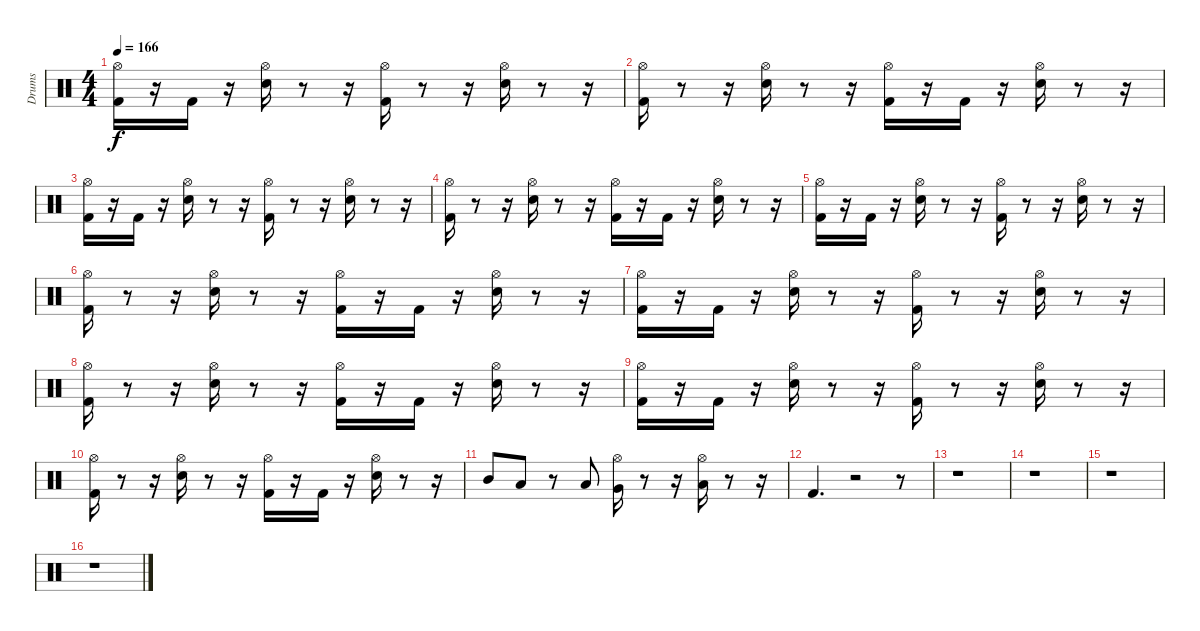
\track ("Drums" "Drums") {instrument percussion}
\staff {score}
\articulation defaults
\ts (4 4)
\tempo 166
\clef neutral
\ks c
("Hi-Hat (open)" "Kick (hit) 2").16{dy f} r.16 "Kick (hit) 2".16 r.16 ("Snare (hit) 2" "Hi-Hat (open)").16 r.8 r.16 ("Hi-Hat (open)" "Kick (hit) 2").16 r.8 r.16 ("Hi-Hat (open)" "Snare (hit) 2").16 r.8 r.16 |
("Hi-Hat (open)" "Kick (hit) 2").16 r.8 r.16 ("Snare (hit) 2" "Hi-Hat (open)").16 r.8 r.16 ("Kick (hit) 2" "Hi-Hat (open)").16 r.16 "Kick (hit) 2".16 r.16 ("Hi-Hat (open)" "Snare (hit) 2").16 r.8 r.16 |
("Hi-Hat (open)" "Kick (hit) 2").16 r.16 "Kick (hit) 2".16 r.16 ("Snare (hit) 2" "Hi-Hat (open)").16 r.8 r.16 ("Hi-Hat (open)" "Kick (hit) 2").16 r.8 r.16 ("Hi-Hat (open)" "Snare (hit) 2").16 r.8 r.16 |
("Hi-Hat (open)" "Kick (hit) 2").16 r.8 r.16 ("Snare (hit) 2" "Hi-Hat (open)").16 r.8 r.16 ("Kick (hit) 2" "Hi-Hat (open)").16 r.16 "Kick (hit) 2".16 r.16 ("Hi-Hat (open)" "Snare (hit) 2").16 r.8 r.16 |
("Hi-Hat (open)" "Kick (hit) 2").16 r.16 "Kick (hit) 2".16 r.16 ("Snare (hit) 2" "Hi-Hat (open)").16 r.8 r.16 ("Hi-Hat (open)" "Kick (hit) 2").16 r.8 r.16 ("Hi-Hat (open)" "Snare (hit) 2").16 r.8 r.16 |
("Hi-Hat (open)" "Kick (hit) 2").16 r.8 r.16 ("Snare (hit) 2" "Hi-Hat (open)").16 r.8 r.16 ("Kick (hit) 2" "Hi-Hat (open)").16 r.16 "Kick (hit) 2".16 r.16 ("Hi-Hat (open)" "Snare (hit) 2").16 r.8 r.16 |
("Hi-Hat (open)" "Kick (hit) 2").16 r.16 "Kick (hit) 2".16 r.16 ("Snare (hit) 2" "Hi-Hat (open)").16 r.8 r.16 ("Hi-Hat (open)" "Kick (hit) 2").16 r.8 r.16 ("Hi-Hat (open)" "Snare (hit) 2").16 r.8 r.16 |
("Hi-Hat (open)" "Kick (hit) 2").16 r.8 r.16 ("Snare (hit) 2" "Hi-Hat (open)").16 r.8 r.16 ("Kick (hit) 2" "Hi-Hat (open)").16 r.16 "Kick (hit) 2".16 r.16 ("Hi-Hat (open)" "Snare (hit) 2").16 r.8 r.16 |
("Hi-Hat (open)" "Kick (hit) 2").16 r.16 "Kick (hit) 2".16 r.16 ("Snare (hit) 2" "Hi-Hat (open)").16 r.8 r.16 ("Hi-Hat (open)" "Kick (hit) 2").16 r.8 r.16 ("Hi-Hat (open)" "Snare (hit) 2").16 r.8 r.16 |
("Hi-Hat (open)" "Kick (hit) 2").16 r.8 r.16 ("Snare (hit) 2" "Hi-Hat (open)").16 r.8 r.16 ("Kick (hit) 2" "Hi-Hat (open)").16 r.16 "Kick (hit) 2".16 r.16 ("Hi-Hat (open)" "Snare (hit) 2").16 r.8 r.16 |
"Mid Tom (hit)".8 "Low Tom (hit)".8 r.8 "Low Tom (hit)".8 ("Very Low Tom (hit)" "Hi-Hat (open)").16 r.8 r.16 ("Low Floor Tom (hit)" "Hi-Hat (open)").16 r.8 r.16 |
"Kick (hit) 2".4{d} r.2 r.8 |
r.1 |
r.1 |
r.1 |
r.1
